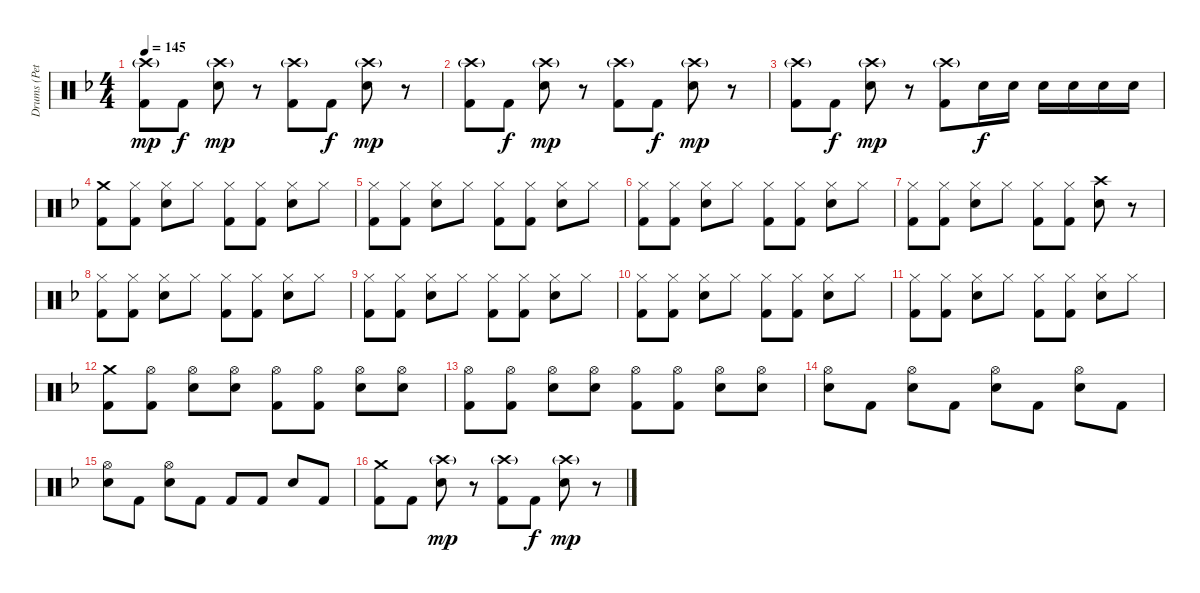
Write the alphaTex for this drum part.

\track ("Drums (Pete)" "Drums (Pet") {instrument percussion}
\staff {score}
\articulation defaults
\ts (4 4)
\tempo 145
\clef neutral
\ks f
("Crash high (hit)"{g} "Kick (hit) 2").8{dy mp} "Kick (hit) 2".8{dy f} ("Crash high (hit)"{g} "Snare (hit) 2").8{dy mp} r.8 ("Crash high (hit)"{g} "Kick (hit) 2").8 "Kick (hit) 2".8{dy f} ("Crash high (hit)"{g} "Snare (hit) 2").8{dy mp} r.8 |
("Crash high (hit)"{g} "Kick (hit) 2").8 "Kick (hit) 2".8{dy f} ("Crash high (hit)"{g} "Snare (hit) 2").8{dy mp} r.8 ("Crash high (hit)"{g} "Kick (hit) 2").8 "Kick (hit) 2".8{dy f} ("Crash high (hit)"{g} "Snare (hit) 2").8{dy mp} r.8 |
("Crash high (hit)"{g} "Kick (hit) 2").8 "Kick (hit) 2".8{dy f} ("Crash high (hit)"{g} "Snare (hit) 2").8{dy mp} r.8 ("Crash high (hit)"{g} "Kick (hit) 2").8 "Snare (hit) 2".16{dy f} "Snare (hit) 2".16 "Snare (hit) 2".16 "Snare (hit) 2".16 "Snare (hit) 2".16 "Snare (hit) 2".16 |
("Crash medium (hit)" "Kick (hit) 2").8 ("Hi-Hat (closed)" "Kick (hit) 2").8 ("Hi-Hat (closed)" "Snare (hit) 2").8 "Hi-Hat (closed)".8 ("Hi-Hat (closed)" "Kick (hit) 2").8 ("Hi-Hat (closed)" "Kick (hit) 2").8 ("Hi-Hat (closed)" "Snare (hit) 2").8 "Hi-Hat (closed)".8 |
("Hi-Hat (closed)" "Kick (hit) 2").8 ("Hi-Hat (closed)" "Kick (hit) 2").8 ("Hi-Hat (closed)" "Snare (hit) 2").8 "Hi-Hat (closed)".8 ("Hi-Hat (closed)" "Kick (hit) 2").8 ("Hi-Hat (closed)" "Kick (hit) 2").8 ("Hi-Hat (closed)" "Snare (hit) 2").8 "Hi-Hat (closed)".8 |
("Hi-Hat (closed)" "Kick (hit) 2").8 ("Hi-Hat (closed)" "Kick (hit) 2").8 ("Hi-Hat (closed)" "Snare (hit) 2").8 "Hi-Hat (closed)".8 ("Hi-Hat (closed)" "Kick (hit) 2").8 ("Hi-Hat (closed)" "Kick (hit) 2").8 ("Hi-Hat (closed)" "Snare (hit) 2").8 "Hi-Hat (closed)".8 |
("Hi-Hat (closed)" "Kick (hit) 2").8 ("Hi-Hat (closed)" "Kick (hit) 2").8 ("Hi-Hat (closed)" "Snare (hit) 2").8 "Hi-Hat (closed)".8 ("Hi-Hat (closed)" "Kick (hit) 2").8 ("Hi-Hat (closed)" "Kick (hit) 2").8 ("Crash high (hit)" "Snare (hit) 2").8 r.8 |
("Hi-Hat (closed)" "Kick (hit) 2").8 ("Hi-Hat (closed)" "Kick (hit) 2").8 ("Hi-Hat (closed)" "Snare (hit) 2").8 "Hi-Hat (closed)".8 ("Hi-Hat (closed)" "Kick (hit) 2").8 ("Hi-Hat (closed)" "Kick (hit) 2").8 ("Hi-Hat (closed)" "Snare (hit) 2").8 "Hi-Hat (closed)".8 |
("Hi-Hat (closed)" "Kick (hit) 2").8 ("Hi-Hat (closed)" "Kick (hit) 2").8 ("Hi-Hat (closed)" "Snare (hit) 2").8 "Hi-Hat (closed)".8 ("Hi-Hat (closed)" "Kick (hit) 2").8 ("Hi-Hat (closed)" "Kick (hit) 2").8 ("Hi-Hat (closed)" "Snare (hit) 2").8 "Hi-Hat (closed)".8 |
("Hi-Hat (closed)" "Kick (hit) 2").8 ("Hi-Hat (closed)" "Kick (hit) 2").8 ("Hi-Hat (closed)" "Snare (hit) 2").8 "Hi-Hat (closed)".8 ("Hi-Hat (closed)" "Kick (hit) 2").8 ("Hi-Hat (closed)" "Kick (hit) 2").8 ("Hi-Hat (closed)" "Snare (hit) 2").8 "Hi-Hat (closed)".8 |
("Hi-Hat (closed)" "Kick (hit) 2").8 ("Hi-Hat (closed)" "Kick (hit) 2").8 ("Hi-Hat (closed)" "Snare (hit) 2").8 "Hi-Hat (closed)".8 ("Hi-Hat (closed)" "Kick (hit) 2").8 ("Hi-Hat (closed)" "Kick (hit) 2").8 ("Hi-Hat (closed)" "Snare (hit) 2").8 "Hi-Hat (closed)".8 |
("Crash medium (hit)" "Kick (hit) 2").8 ("Hi-Hat (open)" "Kick (hit) 2").8 ("Hi-Hat (open)" "Snare (hit) 2").8 ("Hi-Hat (open)" "Snare (hit) 2").8 ("Hi-Hat (open)" "Kick (hit) 2").8 ("Hi-Hat (open)" "Kick (hit) 2").8 ("Hi-Hat (open)" "Snare (hit) 2").8 ("Hi-Hat (open)" "Snare (hit) 2").8 |
("Hi-Hat (open)" "Kick (hit) 2").8 ("Hi-Hat (open)" "Kick (hit) 2").8 ("Hi-Hat (open)" "Snare (hit) 2").8 ("Hi-Hat (open)" "Snare (hit) 2").8 ("Hi-Hat (open)" "Kick (hit) 2").8 ("Hi-Hat (open)" "Kick (hit) 2").8 ("Hi-Hat (open)" "Snare (hit) 2").8 ("Hi-Hat (open)" "Snare (hit) 2").8 |
("Hi-Hat (open)" "Snare (hit) 2").8 "Kick (hit) 2".8 ("Hi-Hat (open)" "Snare (hit) 2").8 "Kick (hit) 2".8 ("Hi-Hat (open)" "Snare (hit) 2").8 "Kick (hit) 2".8 ("Hi-Hat (open)" "Snare (hit) 2").8 "Kick (hit) 2".8 |
("Hi-Hat (open)" "Snare (hit) 2").8 "Kick (hit) 2".8 ("Hi-Hat (open)" "Snare (hit) 2").8 "Kick (hit) 2".8 "Kick (hit) 2".8 "Kick (hit) 2".8 "Snare (hit) 2".8 "Kick (hit) 2".8 |
("Crash medium (hit)" "Kick (hit) 2").8 "Kick (hit) 2".8 ("Crash high (hit)"{g} "Snare (hit) 2").8{dy mp} r.8 ("Crash high (hit)"{g} "Kick (hit) 2").8 "Kick (hit) 2".8{dy f} ("Crash high (hit)"{g} "Snare (hit) 2").8{dy mp} r.8
